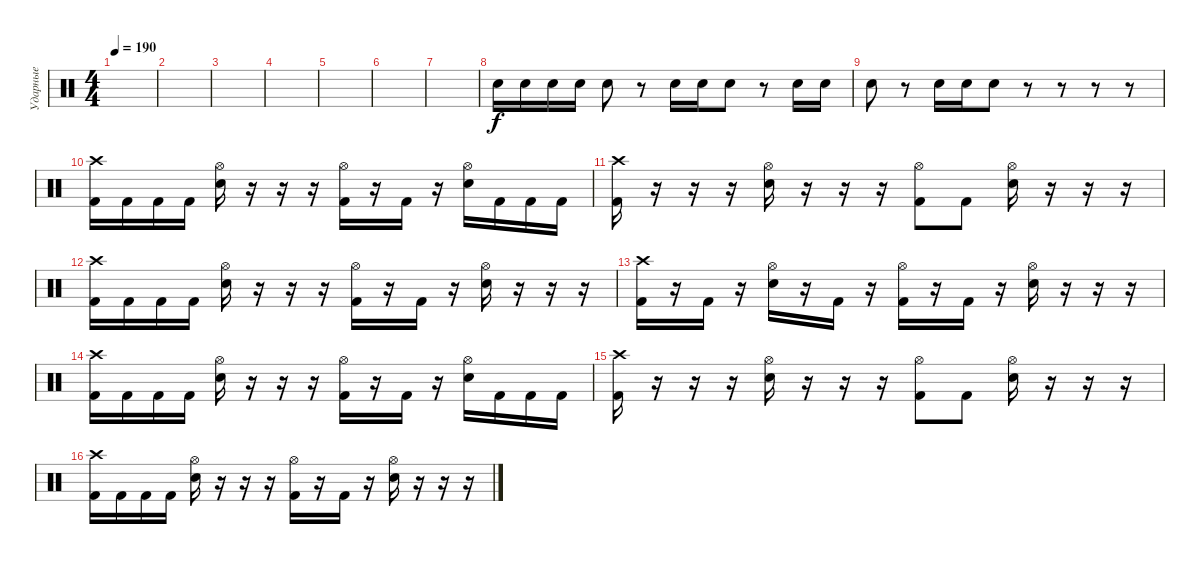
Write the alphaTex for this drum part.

\track ("Ударные" "Ударные") {instrument percussion}
\staff {score}
\articulation defaults
\ts (4 4)
\tempo 190
\clef neutral
\ks c
|
|
|
|
|
|
|
"Electric Snare (hit)".16 "Electric Snare (hit)".16 "Electric Snare (hit)".16 "Electric Snare (hit)".16 "Electric Snare (hit)".8 r.8 "Electric Snare (hit)".16 "Electric Snare (hit)".16 "Electric Snare (hit)".8 r.8 "Electric Snare (hit)".16 "Electric Snare (hit)".16 |
"Electric Snare (hit)".8 r.8 "Electric Snare (hit)".16 "Electric Snare (hit)".16 "Electric Snare (hit)".8 r.8 r.8 r.8 r.8 |
("Crash high (hit)" "Kick (hit) 2").16 "Kick (hit) 2".16 "Kick (hit) 2".16 "Kick (hit) 2".16 ("Hi-Hat (open)" "Electric Snare (hit)").16 r.16 r.16 r.16 ("Hi-Hat (open)" "Kick (hit) 2").16 r.16 "Kick (hit) 2".16 r.16 ("Hi-Hat (open)" "Electric Snare (hit)").16 "Kick (hit) 2".16 "Kick (hit) 2".16 "Kick (hit) 2".16 |
("Crash high (hit)" "Kick (hit) 2").16 r.16 r.16 r.16 ("Hi-Hat (open)" "Electric Snare (hit)").16 r.16 r.16 r.16 ("Hi-Hat (open)" "Kick (hit) 2").8 "Kick (hit) 2".8 ("Hi-Hat (open)" "Electric Snare (hit)").16 r.16 r.16 r.16 |
("Crash high (hit)" "Kick (hit) 2").16 "Kick (hit) 2".16 "Kick (hit) 2".16 "Kick (hit) 2".16 ("Hi-Hat (open)" "Electric Snare (hit)").16 r.16 r.16 r.16 ("Hi-Hat (open)" "Kick (hit) 2").16 r.16 "Kick (hit) 2".16 r.16 ("Hi-Hat (open)" "Electric Snare (hit)").16 r.16 r.16 r.16 |
("Crash high (hit)" "Kick (hit) 2").16 r.16 "Kick (hit) 2".16 r.16 ("Hi-Hat (open)" "Electric Snare (hit)").16 r.16 "Kick (hit) 2".16 r.16 ("Hi-Hat (open)" "Kick (hit) 2").16 r.16 "Kick (hit) 2".16 r.16 ("Hi-Hat (open)" "Electric Snare (hit)").16 r.16 r.16 r.16 |
("Crash high (hit)" "Kick (hit) 2").16 "Kick (hit) 2".16 "Kick (hit) 2".16 "Kick (hit) 2".16 ("Hi-Hat (open)" "Electric Snare (hit)").16 r.16 r.16 r.16 ("Hi-Hat (open)" "Kick (hit) 2").16 r.16 "Kick (hit) 2".16 r.16 ("Hi-Hat (open)" "Electric Snare (hit)").16 "Kick (hit) 2".16 "Kick (hit) 2".16 "Kick (hit) 2".16 |
("Crash high (hit)" "Kick (hit) 2").16 r.16 r.16 r.16 ("Hi-Hat (open)" "Electric Snare (hit)").16 r.16 r.16 r.16 ("Hi-Hat (open)" "Kick (hit) 2").8 "Kick (hit) 2".8 ("Hi-Hat (open)" "Electric Snare (hit)").16 r.16 r.16 r.16 |
("Crash high (hit)" "Kick (hit) 2").16 "Kick (hit) 2".16 "Kick (hit) 2".16 "Kick (hit) 2".16 ("Hi-Hat (open)" "Electric Snare (hit)").16 r.16 r.16 r.16 ("Hi-Hat (open)" "Kick (hit) 2").16 r.16 "Kick (hit) 2".16 r.16 ("Hi-Hat (open)" "Electric Snare (hit)").16 r.16 r.16 r.16
